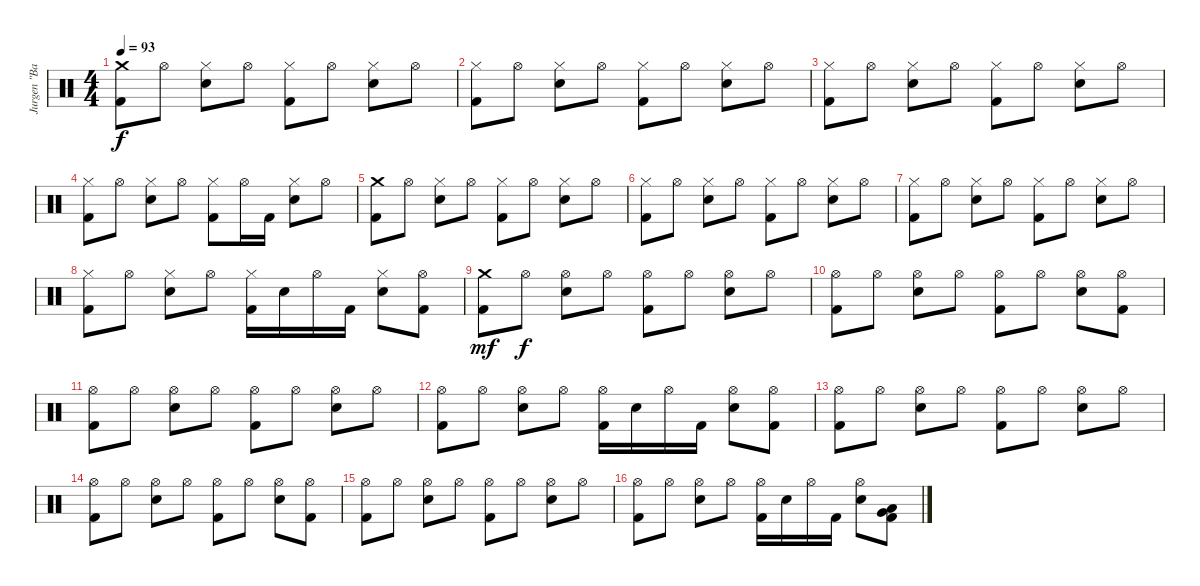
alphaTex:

\track ("Jurgen \"Bam Bam\" Wiehler" "Jurgen \"Ba") {instrument percussion}
\staff {score}
\articulation defaults
\ts (4 4)
\tempo 93
\clef neutral
\ks c
("Crash medium (hit)" "Kick (hit) 2").8{dy f} "Hi-Hat (open)".8 ("Hi-Hat (closed)" "Electric Snare (hit)").8 "Hi-Hat (open)".8 ("Hi-Hat (closed)" "Kick (hit) 2").8 "Hi-Hat (open)".8 ("Hi-Hat (closed)" "Electric Snare (hit)").8 "Hi-Hat (open)".8 |
("Hi-Hat (closed)" "Kick (hit) 2").8 "Hi-Hat (open)".8 ("Hi-Hat (closed)" "Electric Snare (hit)").8 "Hi-Hat (open)".8 ("Hi-Hat (closed)" "Kick (hit) 2").8 "Hi-Hat (open)".8 ("Hi-Hat (closed)" "Electric Snare (hit)").8 "Hi-Hat (open)".8 |
("Hi-Hat (closed)" "Kick (hit) 2").8 "Hi-Hat (open)".8 ("Hi-Hat (closed)" "Electric Snare (hit)").8 "Hi-Hat (open)".8 ("Hi-Hat (closed)" "Kick (hit) 2").8 "Hi-Hat (open)".8 ("Hi-Hat (closed)" "Electric Snare (hit)").8 "Hi-Hat (open)".8 |
("Hi-Hat (closed)" "Kick (hit) 2").8 "Hi-Hat (open)".8 ("Hi-Hat (closed)" "Electric Snare (hit)").8 "Hi-Hat (open)".8 ("Hi-Hat (closed)" "Kick (hit) 2").8 "Hi-Hat (open)".16 "Kick (hit) 2".16 ("Hi-Hat (closed)" "Electric Snare (hit)").8 "Hi-Hat (open)".8 |
("Crash medium (hit)" "Kick (hit) 2").8 "Hi-Hat (open)".8 ("Hi-Hat (closed)" "Electric Snare (hit)").8 "Hi-Hat (open)".8 ("Hi-Hat (closed)" "Kick (hit) 2").8 "Hi-Hat (open)".8 ("Hi-Hat (closed)" "Electric Snare (hit)").8 "Hi-Hat (open)".8 |
("Hi-Hat (closed)" "Kick (hit) 2").8 "Hi-Hat (open)".8 ("Hi-Hat (closed)" "Electric Snare (hit)").8 "Hi-Hat (open)".8 ("Hi-Hat (closed)" "Kick (hit) 2").8 "Hi-Hat (open)".8 ("Hi-Hat (closed)" "Electric Snare (hit)").8 "Hi-Hat (open)".8 |
("Hi-Hat (closed)" "Kick (hit) 2").8 "Hi-Hat (open)".8 ("Hi-Hat (closed)" "Electric Snare (hit)").8 "Hi-Hat (open)".8 ("Hi-Hat (closed)" "Kick (hit) 2").8 "Hi-Hat (open)".8 ("Hi-Hat (closed)" "Electric Snare (hit)").8 "Hi-Hat (open)".8 |
("Hi-Hat (closed)" "Kick (hit) 2").8 "Hi-Hat (open)".8 ("Hi-Hat (closed)" "Electric Snare (hit)").8 "Hi-Hat (open)".8 ("Hi-Hat (closed)" "Kick (hit) 2").16 "Electric Snare (hit)".16 "Hi-Hat (open)".16 "Kick (hit) 2".16 ("Hi-Hat (closed)" "Electric Snare (hit)").8 ("Hi-Hat (open)" "Kick (hit) 2").8 |
("Crash medium (hit)" "Kick (hit) 2").8{dy mf} "Hi-Hat (open)".8{dy f} ("Hi-Hat (open)" "Electric Snare (hit)").8 "Hi-Hat (open)".8 ("Hi-Hat (open)" "Kick (hit) 2").8 "Hi-Hat (open)".8 ("Hi-Hat (open)" "Electric Snare (hit)").8 "Hi-Hat (open)".8 |
("Hi-Hat (open)" "Kick (hit) 2").8 "Hi-Hat (open)".8 ("Hi-Hat (open)" "Electric Snare (hit)").8 "Hi-Hat (open)".8 ("Hi-Hat (open)" "Kick (hit) 2").8 "Hi-Hat (open)".8 ("Hi-Hat (open)" "Electric Snare (hit)").8 ("Hi-Hat (open)" "Kick (hit) 2").8 |
("Hi-Hat (open)" "Kick (hit) 2").8 "Hi-Hat (open)".8 ("Hi-Hat (open)" "Electric Snare (hit)").8 "Hi-Hat (open)".8 ("Hi-Hat (open)" "Kick (hit) 2").8 "Hi-Hat (open)".8 ("Hi-Hat (open)" "Electric Snare (hit)").8 "Hi-Hat (open)".8 |
("Hi-Hat (open)" "Kick (hit) 2").8 "Hi-Hat (open)".8 ("Hi-Hat (open)" "Electric Snare (hit)").8 "Hi-Hat (open)".8 ("Hi-Hat (open)" "Kick (hit) 2").16 "Electric Snare (hit)".16 "Hi-Hat (open)".16 "Kick (hit) 2".16 ("Hi-Hat (open)" "Electric Snare (hit)").8 ("Hi-Hat (open)" "Kick (hit) 2").8 |
("Hi-Hat (open)" "Kick (hit) 2").8 "Hi-Hat (open)".8 ("Hi-Hat (open)" "Electric Snare (hit)").8 "Hi-Hat (open)".8 ("Hi-Hat (open)" "Kick (hit) 2").8 "Hi-Hat (open)".8 ("Hi-Hat (open)" "Electric Snare (hit)").8 "Hi-Hat (open)".8 |
("Hi-Hat (open)" "Kick (hit) 2").8 "Hi-Hat (open)".8 ("Hi-Hat (open)" "Electric Snare (hit)").8 "Hi-Hat (open)".8 ("Hi-Hat (open)" "Kick (hit) 2").8 "Hi-Hat (open)".8 ("Hi-Hat (open)" "Electric Snare (hit)").8 ("Hi-Hat (open)" "Kick (hit) 2").8 |
("Hi-Hat (open)" "Kick (hit) 2").8 "Hi-Hat (open)".8 ("Hi-Hat (open)" "Electric Snare (hit)").8 "Hi-Hat (open)".8 ("Hi-Hat (open)" "Kick (hit) 2").8 "Hi-Hat (open)".8 ("Hi-Hat (open)" "Electric Snare (hit)").8 "Hi-Hat (open)".8 |
("Hi-Hat (open)" "Kick (hit) 2").8 "Hi-Hat (open)".8 ("Hi-Hat (open)" "Electric Snare (hit)").8 "Hi-Hat (open)".8 ("Hi-Hat (open)" "Kick (hit) 2").16 "Electric Snare (hit)".16 "Hi-Hat (open)".16 "Kick (hit) 2".16 ("Hi-Hat (open)" "Electric Snare (hit)").8 ("Low Floor Tom (hit)" "Very Low Tom (hit)" "Kick (hit) 2").8
